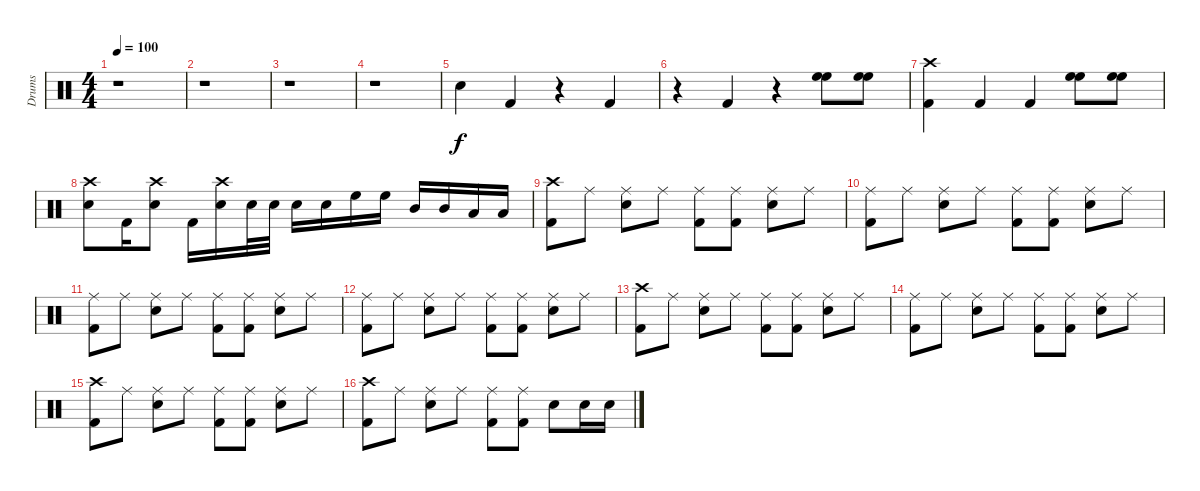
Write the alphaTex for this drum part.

\track ("Drums" "Drums") {instrument percussion}
\staff {score}
\articulation defaults
\ts (4 4)
\tempo 100
\clef neutral
\ks c
r.1{dy f} |
r.1 |
r.1 |
r.1 |
"Snare (hit) 2".4 "Kick (hit) 2".4 r.4 "Kick (hit) 2".4 |
r.4 "Kick (hit) 2".4 r.4 ("High Floor Tom (hit)" "High Floor Tom (hit)").8 ("High Floor Tom (hit)" "High Floor Tom (hit)").8 |
("Crash high (hit)" "Kick (hit) 2").4 "Kick (hit) 2".4 "Kick (hit) 2".4 ("High Floor Tom (hit)" "High Floor Tom (hit)").8 ("High Floor Tom (hit)" "High Floor Tom (hit)").8 |
("Crash high (hit)" "Snare (hit) 2").8 "Kick (hit) 2".16 ("Crash high (hit)" "Snare (hit) 2").8 "Kick (hit) 2".16 ("Crash high (hit)" "Snare (hit) 2").16 "Snare (hit) 2".32 "Snare (hit) 2".32 "Snare (hit) 2".16 "Snare (hit) 2".16 "High Floor Tom (hit)".16 "High Floor Tom (hit)".16 "Mid Tom (hit)".16 "Mid Tom (hit)".16 "Low Tom (hit)".16 "Low Tom (hit)".16 |
("Crash high (hit)" "Kick (hit) 2").8 "Ride (middle)".8 ("Ride (middle)" "Snare (hit) 2").8 "Ride (middle)".8 ("Ride (middle)" "Kick (hit) 2").8 ("Ride (middle)" "Kick (hit) 2").8 ("Ride (middle)" "Snare (hit) 2").8 "Ride (middle)".8 |
("Ride (middle)" "Kick (hit) 2").8 "Ride (middle)".8 ("Ride (middle)" "Snare (hit) 2").8 "Ride (middle)".8 ("Ride (middle)" "Kick (hit) 2").8 ("Ride (middle)" "Kick (hit) 2").8 ("Ride (middle)" "Snare (hit) 2").8 "Ride (middle)".8 |
("Ride (middle)" "Kick (hit) 2").8 "Ride (middle)".8 ("Ride (middle)" "Snare (hit) 2").8 "Ride (middle)".8 ("Ride (middle)" "Kick (hit) 2").8 ("Ride (middle)" "Kick (hit) 2").8 ("Ride (middle)" "Snare (hit) 2").8 "Ride (middle)".8 |
("Ride (middle)" "Kick (hit) 2").8 "Ride (middle)".8 ("Ride (middle)" "Snare (hit) 2").8 "Ride (middle)".8 ("Ride (middle)" "Kick (hit) 2").8 ("Ride (middle)" "Kick (hit) 2").8 ("Ride (middle)" "Snare (hit) 2").8 "Ride (middle)".8 |
("Crash high (hit)" "Kick (hit) 2").8 "Ride (middle)".8 ("Ride (middle)" "Snare (hit) 2").8 "Ride (middle)".8 ("Ride (middle)" "Kick (hit) 2").8 ("Ride (middle)" "Kick (hit) 2").8 ("Ride (middle)" "Snare (hit) 2").8 "Ride (middle)".8 |
("Ride (middle)" "Kick (hit) 2").8 "Ride (middle)".8 ("Ride (middle)" "Snare (hit) 2").8 "Ride (middle)".8 ("Ride (middle)" "Kick (hit) 2").8 ("Ride (middle)" "Kick (hit) 2").8 ("Ride (middle)" "Snare (hit) 2").8 "Ride (middle)".8 |
("Crash high (hit)" "Kick (hit) 2").8 "Ride (middle)".8 ("Ride (middle)" "Snare (hit) 2").8 "Ride (middle)".8 ("Ride (middle)" "Kick (hit) 2").8 ("Ride (middle)" "Kick (hit) 2").8 ("Ride (middle)" "Snare (hit) 2").8 "Ride (middle)".8 |
("Crash high (hit)" "Kick (hit) 2").8 "Ride (middle)".8 ("Ride (middle)" "Snare (hit) 2").8 "Ride (middle)".8 ("Ride (middle)" "Kick (hit) 2").8 ("Ride (middle)" "Kick (hit) 2").8 "Snare (hit) 2".8 "Snare (hit) 2".16 "Snare (hit) 2".16
